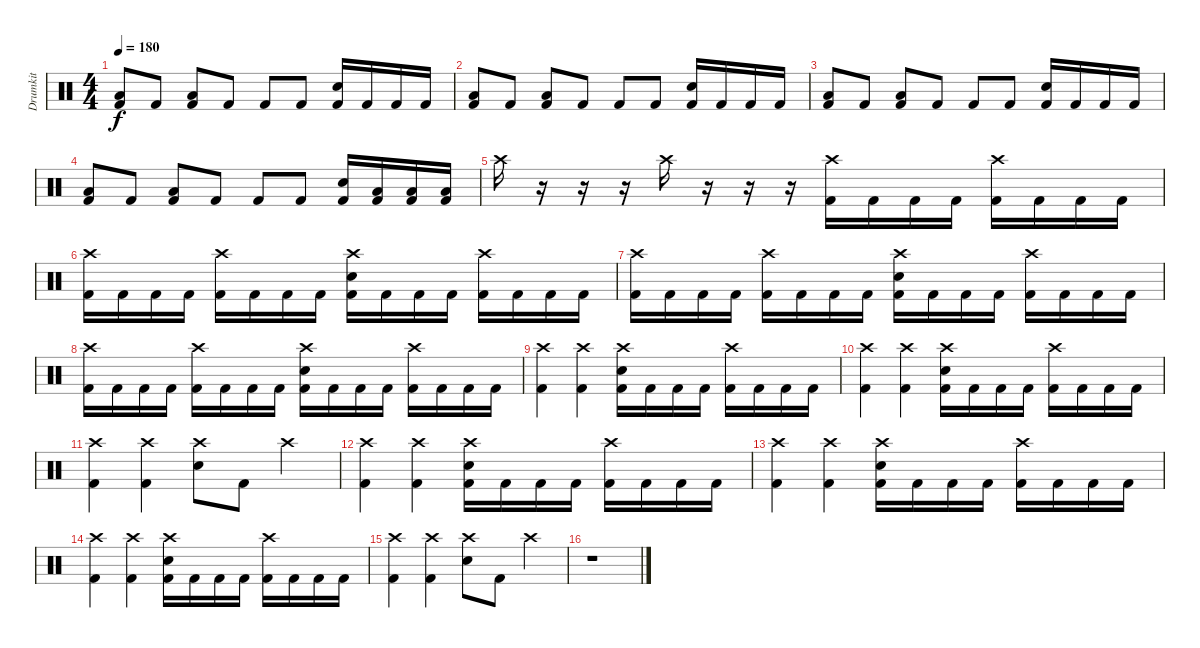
\track ("Drumkit" "Drumkit") {instrument percussion}
\staff {score}
\articulation defaults
\ts (4 4)
\tempo 180
\clef neutral
\ks c
("Low Tom (hit)" "Kick (hit) 2").8{dy f} "Kick (hit) 2".8 ("Low Tom (hit)" "Kick (hit) 2").8 "Kick (hit) 2".8 "Kick (hit) 2".8 "Kick (hit) 2".8 ("Snare (hit) 2" "Kick (hit) 2").16 "Kick (hit) 2".16 "Kick (hit) 2".16 "Kick (hit) 2".16 |
("Low Tom (hit)" "Kick (hit) 2").8 "Kick (hit) 2".8 ("Low Tom (hit)" "Kick (hit) 2").8 "Kick (hit) 2".8 "Kick (hit) 2".8 "Kick (hit) 2".8 ("Snare (hit) 2" "Kick (hit) 2").16 "Kick (hit) 2".16 "Kick (hit) 2".16 "Kick (hit) 2".16 |
("Low Tom (hit)" "Kick (hit) 2").8 "Kick (hit) 2".8 ("Low Tom (hit)" "Kick (hit) 2").8 "Kick (hit) 2".8 "Kick (hit) 2".8 "Kick (hit) 2".8 ("Snare (hit) 2" "Kick (hit) 2").16 "Kick (hit) 2".16 "Kick (hit) 2".16 "Kick (hit) 2".16 |
("Low Tom (hit)" "Kick (hit) 2").8 "Kick (hit) 2".8 ("Low Tom (hit)" "Kick (hit) 2").8 "Kick (hit) 2".8 "Kick (hit) 2".8 "Kick (hit) 2".8 ("Snare (hit) 2" "Kick (hit) 2").16 ("Low Tom (hit)" "Kick (hit) 2").16 ("Low Tom (hit)" "Kick (hit) 2").16 ("Low Tom (hit)" "Kick (hit) 2").16 |
"Crash high (hit)".16 r.16 r.16 r.16 "Crash high (hit)".16 r.16 r.16 r.16 ("Crash high (hit)" "Kick (hit) 2").16 "Kick (hit) 2".16 "Kick (hit) 2".16 "Kick (hit) 2".16 ("Crash high (hit)" "Kick (hit) 2").16 "Kick (hit) 2".16 "Kick (hit) 2".16 "Kick (hit) 2".16 |
("Crash high (hit)" "Kick (hit) 2").16 "Kick (hit) 2".16 "Kick (hit) 2".16 "Kick (hit) 2".16 ("Crash high (hit)" "Kick (hit) 2").16 "Kick (hit) 2".16 "Kick (hit) 2".16 "Kick (hit) 2".16 ("Crash high (hit)" "Snare (hit) 2" "Kick (hit) 2").16 "Kick (hit) 2".16 "Kick (hit) 2".16 "Kick (hit) 2".16 ("Crash high (hit)" "Kick (hit) 2").16 "Kick (hit) 2".16 "Kick (hit) 2".16 "Kick (hit) 2".16 |
("Crash high (hit)" "Kick (hit) 2").16 "Kick (hit) 2".16 "Kick (hit) 2".16 "Kick (hit) 2".16 ("Crash high (hit)" "Kick (hit) 2").16 "Kick (hit) 2".16 "Kick (hit) 2".16 "Kick (hit) 2".16 ("Crash high (hit)" "Snare (hit) 2" "Kick (hit) 2").16 "Kick (hit) 2".16 "Kick (hit) 2".16 "Kick (hit) 2".16 ("Crash high (hit)" "Kick (hit) 2").16 "Kick (hit) 2".16 "Kick (hit) 2".16 "Kick (hit) 2".16 |
("Crash high (hit)" "Kick (hit) 2").16 "Kick (hit) 2".16 "Kick (hit) 2".16 "Kick (hit) 2".16 ("Crash high (hit)" "Kick (hit) 2").16 "Kick (hit) 2".16 "Kick (hit) 2".16 "Kick (hit) 2".16 ("Crash high (hit)" "Snare (hit) 2" "Kick (hit) 2").16 "Kick (hit) 2".16 "Kick (hit) 2".16 "Kick (hit) 2".16 ("Crash high (hit)" "Kick (hit) 2").16 "Kick (hit) 2".16 "Kick (hit) 2".16 "Kick (hit) 2".16 |
("Crash high (hit)" "Kick (hit) 2").4 ("Crash high (hit)" "Kick (hit) 2").4 ("Crash high (hit)" "Snare (hit) 2" "Kick (hit) 2").16 "Kick (hit) 2".16 "Kick (hit) 2".16 "Kick (hit) 2".16 ("Crash high (hit)" "Kick (hit) 2").16 "Kick (hit) 2".16 "Kick (hit) 2".16 "Kick (hit) 2".16 |
("Crash high (hit)" "Kick (hit) 2").4 ("Crash high (hit)" "Kick (hit) 2").4 ("Crash high (hit)" "Snare (hit) 2" "Kick (hit) 2").16 "Kick (hit) 2".16 "Kick (hit) 2".16 "Kick (hit) 2".16 ("Crash high (hit)" "Kick (hit) 2").16 "Kick (hit) 2".16 "Kick (hit) 2".16 "Kick (hit) 2".16 |
("Crash high (hit)" "Kick (hit) 2").4 ("Crash high (hit)" "Kick (hit) 2").4 ("Crash high (hit)" "Snare (hit) 2").8 "Kick (hit) 2".8 "Crash high (hit)".4 |
("Crash high (hit)" "Kick (hit) 2").4 ("Crash high (hit)" "Kick (hit) 2").4 ("Crash high (hit)" "Snare (hit) 2" "Kick (hit) 2").16 "Kick (hit) 2".16 "Kick (hit) 2".16 "Kick (hit) 2".16 ("Crash high (hit)" "Kick (hit) 2").16 "Kick (hit) 2".16 "Kick (hit) 2".16 "Kick (hit) 2".16 |
("Crash high (hit)" "Kick (hit) 2").4 ("Crash high (hit)" "Kick (hit) 2").4 ("Crash high (hit)" "Snare (hit) 2" "Kick (hit) 2").16 "Kick (hit) 2".16 "Kick (hit) 2".16 "Kick (hit) 2".16 ("Crash high (hit)" "Kick (hit) 2").16 "Kick (hit) 2".16 "Kick (hit) 2".16 "Kick (hit) 2".16 |
("Crash high (hit)" "Kick (hit) 2").4 ("Crash high (hit)" "Kick (hit) 2").4 ("Crash high (hit)" "Snare (hit) 2" "Kick (hit) 2").16 "Kick (hit) 2".16 "Kick (hit) 2".16 "Kick (hit) 2".16 ("Crash high (hit)" "Kick (hit) 2").16 "Kick (hit) 2".16 "Kick (hit) 2".16 "Kick (hit) 2".16 |
("Crash high (hit)" "Kick (hit) 2").4 ("Crash high (hit)" "Kick (hit) 2").4 ("Crash high (hit)" "Snare (hit) 2").8 "Kick (hit) 2".8 "Crash high (hit)".4 |
r.1
